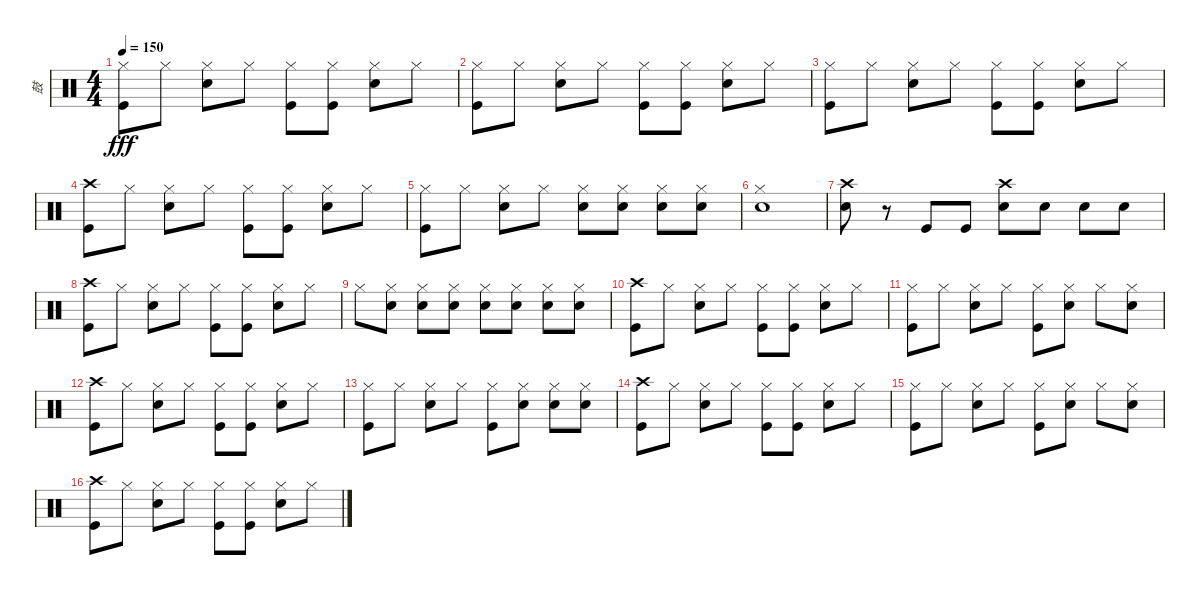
\track ("鼓" "鼓") {instrument percussion}
\staff {score}
\articulation defaults
\ts (4 4)
\tempo 150
\clef neutral
\ks c
("Hi-Hat (closed)" "Kick (hit)").8{dy fff} "Hi-Hat (closed)".8 ("Hi-Hat (closed)" "Electric Snare (hit)").8 "Hi-Hat (closed)".8 ("Hi-Hat (closed)" "Kick (hit)").8 ("Hi-Hat (closed)" "Kick (hit)").8 ("Hi-Hat (closed)" "Electric Snare (hit)").8 "Hi-Hat (closed)".8 |
("Hi-Hat (closed)" "Kick (hit)").8 "Hi-Hat (closed)".8 ("Hi-Hat (closed)" "Electric Snare (hit)").8 "Hi-Hat (closed)".8 ("Hi-Hat (closed)" "Kick (hit)").8 ("Hi-Hat (closed)" "Kick (hit)").8 ("Hi-Hat (closed)" "Electric Snare (hit)").8 "Hi-Hat (closed)".8 |
("Hi-Hat (closed)" "Kick (hit)").8 "Hi-Hat (closed)".8 ("Hi-Hat (closed)" "Electric Snare (hit)").8 "Hi-Hat (closed)".8 ("Hi-Hat (closed)" "Kick (hit)").8 ("Hi-Hat (closed)" "Kick (hit)").8 ("Hi-Hat (closed)" "Electric Snare (hit)").8 "Hi-Hat (closed)".8 |
("Crash high (hit)" "Kick (hit)").8 "Hi-Hat (closed)".8 ("Hi-Hat (closed)" "Electric Snare (hit)").8 "Hi-Hat (closed)".8 ("Hi-Hat (closed)" "Kick (hit)").8 ("Hi-Hat (closed)" "Kick (hit)").8 ("Hi-Hat (closed)" "Electric Snare (hit)").8 "Hi-Hat (closed)".8 |
("Hi-Hat (closed)" "Kick (hit)").8 "Hi-Hat (closed)".8 ("Hi-Hat (closed)" "Electric Snare (hit)").8 "Hi-Hat (closed)".8 ("Hi-Hat (closed)" "Electric Snare (hit)").8 ("Hi-Hat (closed)" "Electric Snare (hit)").8 ("Hi-Hat (closed)" "Electric Snare (hit)").8 ("Hi-Hat (closed)" "Electric Snare (hit)").8 |
("Hi-Hat (closed)" "Electric Snare (hit)").1 |
("Crash high (hit)" "Electric Snare (hit)").8 r.8 "Kick (hit)".8 "Kick (hit)".8 ("Crash high (hit)" "Electric Snare (hit)").8 "Electric Snare (hit)".8 "Electric Snare (hit)".8 "Electric Snare (hit)".8 |
("Crash high (hit)" "Kick (hit)").8 "Hi-Hat (closed)".8 ("Hi-Hat (closed)" "Electric Snare (hit)").8 "Hi-Hat (closed)".8 ("Hi-Hat (closed)" "Kick (hit)").8 ("Hi-Hat (closed)" "Kick (hit)").8 ("Hi-Hat (closed)" "Electric Snare (hit)").8 "Hi-Hat (closed)".8 |
"Hi-Hat (closed)".8 ("Hi-Hat (closed)" "Electric Snare (hit)").8 ("Hi-Hat (closed)" "Electric Snare (hit)").8 ("Hi-Hat (closed)" "Electric Snare (hit)").8 ("Hi-Hat (closed)" "Electric Snare (hit)").8 ("Hi-Hat (closed)" "Electric Snare (hit)").8 ("Hi-Hat (closed)" "Electric Snare (hit)").8 ("Hi-Hat (closed)" "Electric Snare (hit)").8 |
("Crash high (hit)" "Kick (hit)").8 "Hi-Hat (closed)".8 ("Hi-Hat (closed)" "Electric Snare (hit)").8 "Hi-Hat (closed)".8 ("Hi-Hat (closed)" "Kick (hit)").8 ("Hi-Hat (closed)" "Kick (hit)").8 ("Hi-Hat (closed)" "Electric Snare (hit)").8 "Hi-Hat (closed)".8 |
("Hi-Hat (closed)" "Kick (hit)").8 "Hi-Hat (closed)".8 ("Hi-Hat (closed)" "Electric Snare (hit)").8 "Hi-Hat (closed)".8 ("Hi-Hat (closed)" "Kick (hit)").8 ("Hi-Hat (closed)" "Electric Snare (hit)").8 "Hi-Hat (closed)".8 ("Hi-Hat (closed)" "Electric Snare (hit)").8 |
("Crash high (hit)" "Kick (hit)").8 "Hi-Hat (closed)".8 ("Hi-Hat (closed)" "Electric Snare (hit)").8 "Hi-Hat (closed)".8 ("Hi-Hat (closed)" "Kick (hit)").8 ("Hi-Hat (closed)" "Kick (hit)").8 ("Hi-Hat (closed)" "Electric Snare (hit)").8 "Hi-Hat (closed)".8 |
("Hi-Hat (closed)" "Kick (hit)").8 "Hi-Hat (closed)".8 ("Hi-Hat (closed)" "Electric Snare (hit)").8 "Hi-Hat (closed)".8 ("Hi-Hat (closed)" "Kick (hit)").8 ("Hi-Hat (closed)" "Electric Snare (hit)").8 ("Hi-Hat (closed)" "Electric Snare (hit)").8 ("Hi-Hat (closed)" "Electric Snare (hit)").8 |
("Crash high (hit)" "Kick (hit)").8 "Hi-Hat (closed)".8 ("Hi-Hat (closed)" "Electric Snare (hit)").8 "Hi-Hat (closed)".8 ("Hi-Hat (closed)" "Kick (hit)").8 ("Hi-Hat (closed)" "Kick (hit)").8 ("Hi-Hat (closed)" "Electric Snare (hit)").8 "Hi-Hat (closed)".8 |
("Hi-Hat (closed)" "Kick (hit)").8 "Hi-Hat (closed)".8 ("Hi-Hat (closed)" "Electric Snare (hit)").8 "Hi-Hat (closed)".8 ("Hi-Hat (closed)" "Kick (hit)").8 ("Hi-Hat (closed)" "Electric Snare (hit)").8 "Hi-Hat (closed)".8 ("Hi-Hat (closed)" "Electric Snare (hit)").8 |
("Crash high (hit)" "Kick (hit)").8 "Hi-Hat (closed)".8 ("Hi-Hat (closed)" "Electric Snare (hit)").8 "Hi-Hat (closed)".8 ("Hi-Hat (closed)" "Kick (hit)").8 ("Hi-Hat (closed)" "Kick (hit)").8 ("Hi-Hat (closed)" "Electric Snare (hit)").8 "Hi-Hat (closed)".8
